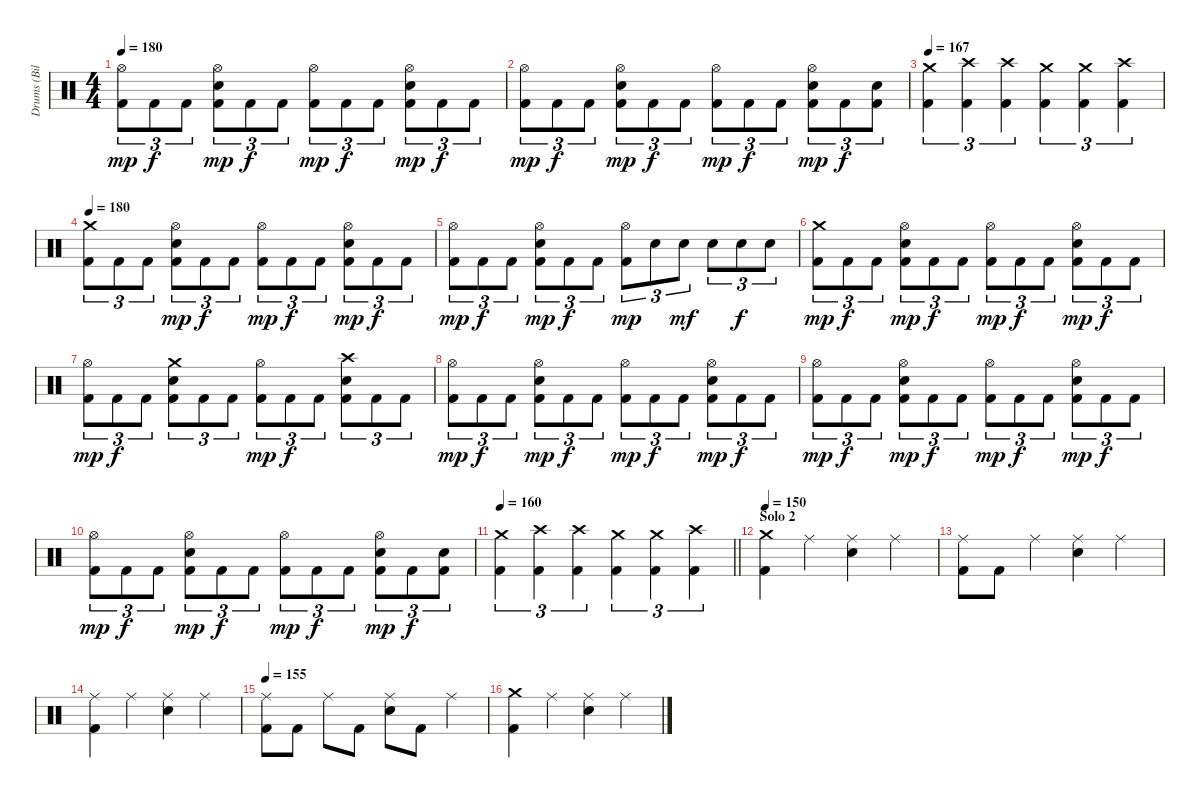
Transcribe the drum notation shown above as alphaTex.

\track ("Drums (Bill Andrews)" "Drums (Bil") {instrument percussion}
\staff
\articulation defaults
\ts (4 4)
\tempo 180
\clef neutral
\ks c
("Hi-Hat (open)" "Kick (hit) 2").8{tu (3 2) dy mp} "Kick (hit) 2".8{tu (3 2) dy f} "Kick (hit) 2".8{tu (3 2)} ("Hi-Hat (open)" "Kick (hit) 2" "Electric Snare (hit)").8{tu (3 2) dy mp} "Kick (hit) 2".8{tu (3 2) dy f} "Kick (hit) 2".8{tu (3 2)} ("Hi-Hat (open)" "Kick (hit) 2").8{tu (3 2) dy mp} "Kick (hit) 2".8{tu (3 2) dy f} "Kick (hit) 2".8{tu (3 2)} ("Hi-Hat (open)" "Kick (hit) 2" "Electric Snare (hit)").8{tu (3 2) dy mp} "Kick (hit) 2".8{tu (3 2) dy f} "Kick (hit) 2".8{tu (3 2)} |
("Hi-Hat (open)" "Kick (hit) 2").8{tu (3 2) dy mp} "Kick (hit) 2".8{tu (3 2) dy f} "Kick (hit) 2".8{tu (3 2)} ("Hi-Hat (open)" "Kick (hit) 2" "Electric Snare (hit)").8{tu (3 2) dy mp} "Kick (hit) 2".8{tu (3 2) dy f} "Kick (hit) 2".8{tu (3 2)} ("Hi-Hat (open)" "Kick (hit) 2").8{tu (3 2) dy mp} "Kick (hit) 2".8{tu (3 2) dy f} "Kick (hit) 2".8{tu (3 2)} ("Hi-Hat (open)" "Kick (hit) 2" "Electric Snare (hit)").8{tu (3 2) dy mp} "Kick (hit) 2".8{tu (3 2) dy f} ("Kick (hit) 2" "Electric Snare (hit)").8{tu (3 2)} |
\tempo 167
("Crash medium (hit)" "Kick (hit) 2").4{tu (3 2)} ("Crash high (hit)" "Kick (hit) 2").4{tu (3 2)} ("Crash high (hit)" "Kick (hit) 2").4{tu (3 2)} ("Crash medium (hit)" "Kick (hit) 2").4{tu (3 2)} ("Crash medium (hit)" "Kick (hit) 2").4{tu (3 2)} ("Crash high (hit)" "Kick (hit) 2").4{tu (3 2)} |
\tempo 180
("Crash medium (hit)" "Kick (hit) 2").8{tu (3 2)} "Kick (hit) 2".8{tu (3 2)} "Kick (hit) 2".8{tu (3 2)} ("Hi-Hat (open)" "Kick (hit) 2" "Electric Snare (hit)").8{tu (3 2) dy mp} "Kick (hit) 2".8{tu (3 2) dy f} "Kick (hit) 2".8{tu (3 2)} ("Hi-Hat (open)" "Kick (hit) 2").8{tu (3 2) dy mp} "Kick (hit) 2".8{tu (3 2) dy f} "Kick (hit) 2".8{tu (3 2)} ("Hi-Hat (open)" "Kick (hit) 2" "Electric Snare (hit)").8{tu (3 2) dy mp} "Kick (hit) 2".8{tu (3 2) dy f} "Kick (hit) 2".8{tu (3 2)} |
("Hi-Hat (open)" "Kick (hit) 2").8{tu (3 2) dy mp} "Kick (hit) 2".8{tu (3 2) dy f} "Kick (hit) 2".8{tu (3 2)} ("Hi-Hat (open)" "Kick (hit) 2" "Electric Snare (hit)").8{tu (3 2) dy mp} "Kick (hit) 2".8{tu (3 2) dy f} "Kick (hit) 2".8{tu (3 2)} ("Hi-Hat (open)" "Kick (hit) 2").8{tu (3 2) dy mp} "Electric Snare (hit)".8{tu (3 2)} "Electric Snare (hit)".8{tu (3 2) dy mf} "Electric Snare (hit)".8{tu (3 2)} "Electric Snare (hit)".8{tu (3 2) dy f} "Electric Snare (hit)".8{tu (3 2)} |
("Crash medium (hit)" "Kick (hit) 2").8{tu (3 2) dy mp} "Kick (hit) 2".8{tu (3 2) dy f} "Kick (hit) 2".8{tu (3 2)} ("Hi-Hat (open)" "Kick (hit) 2" "Electric Snare (hit)").8{tu (3 2) dy mp} "Kick (hit) 2".8{tu (3 2) dy f} "Kick (hit) 2".8{tu (3 2)} ("Hi-Hat (open)" "Kick (hit) 2").8{tu (3 2) dy mp} "Kick (hit) 2".8{tu (3 2) dy f} "Kick (hit) 2".8{tu (3 2)} ("Hi-Hat (open)" "Kick (hit) 2" "Electric Snare (hit)").8{tu (3 2) dy mp} "Kick (hit) 2".8{tu (3 2) dy f} "Kick (hit) 2".8{tu (3 2)} |
("Hi-Hat (open)" "Kick (hit) 2").8{tu (3 2) dy mp} "Kick (hit) 2".8{tu (3 2) dy f} "Kick (hit) 2".8{tu (3 2)} ("Crash medium (hit)" "Kick (hit) 2" "Electric Snare (hit)").8{tu (3 2)} "Kick (hit) 2".8{tu (3 2)} "Kick (hit) 2".8{tu (3 2)} ("Hi-Hat (open)" "Kick (hit) 2").8{tu (3 2) dy mp} "Kick (hit) 2".8{tu (3 2) dy f} "Kick (hit) 2".8{tu (3 2)} ("Crash high (hit)" "Kick (hit) 2" "Electric Snare (hit)").8{tu (3 2)} "Kick (hit) 2".8{tu (3 2)} "Kick (hit) 2".8{tu (3 2)} |
("Hi-Hat (open)" "Kick (hit) 2").8{tu (3 2) dy mp} "Kick (hit) 2".8{tu (3 2) dy f} "Kick (hit) 2".8{tu (3 2)} ("Hi-Hat (open)" "Kick (hit) 2" "Electric Snare (hit)").8{tu (3 2) dy mp} "Kick (hit) 2".8{tu (3 2) dy f} "Kick (hit) 2".8{tu (3 2)} ("Hi-Hat (open)" "Kick (hit) 2").8{tu (3 2) dy mp} "Kick (hit) 2".8{tu (3 2) dy f} "Kick (hit) 2".8{tu (3 2)} ("Hi-Hat (open)" "Kick (hit) 2" "Electric Snare (hit)").8{tu (3 2) dy mp} "Kick (hit) 2".8{tu (3 2) dy f} "Kick (hit) 2".8{tu (3 2)} |
("Hi-Hat (open)" "Kick (hit) 2").8{tu (3 2) dy mp} "Kick (hit) 2".8{tu (3 2) dy f} "Kick (hit) 2".8{tu (3 2)} ("Hi-Hat (open)" "Kick (hit) 2" "Electric Snare (hit)").8{tu (3 2) dy mp} "Kick (hit) 2".8{tu (3 2) dy f} "Kick (hit) 2".8{tu (3 2)} ("Hi-Hat (open)" "Kick (hit) 2").8{tu (3 2) dy mp} "Kick (hit) 2".8{tu (3 2) dy f} "Kick (hit) 2".8{tu (3 2)} ("Hi-Hat (open)" "Kick (hit) 2" "Electric Snare (hit)").8{tu (3 2) dy mp} "Kick (hit) 2".8{tu (3 2) dy f} "Kick (hit) 2".8{tu (3 2)} |
("Hi-Hat (open)" "Kick (hit) 2").8{tu (3 2) dy mp} "Kick (hit) 2".8{tu (3 2) dy f} "Kick (hit) 2".8{tu (3 2)} ("Hi-Hat (open)" "Kick (hit) 2" "Electric Snare (hit)").8{tu (3 2) dy mp} "Kick (hit) 2".8{tu (3 2) dy f} "Kick (hit) 2".8{tu (3 2)} ("Hi-Hat (open)" "Kick (hit) 2").8{tu (3 2) dy mp} "Kick (hit) 2".8{tu (3 2) dy f} "Kick (hit) 2".8{tu (3 2)} ("Hi-Hat (open)" "Kick (hit) 2" "Electric Snare (hit)").8{tu (3 2) dy mp} "Kick (hit) 2".8{tu (3 2) dy f} ("Kick (hit) 2" "Electric Snare (hit)").8{tu (3 2)} |
\tempo 160
\barLineRight lightlight
("Crash medium (hit)" "Kick (hit) 2").4{tu (3 2)} ("Crash high (hit)" "Kick (hit) 2").4{tu (3 2)} ("Crash high (hit)" "Kick (hit) 2").4{tu (3 2)} ("Crash medium (hit)" "Kick (hit) 2").4{tu (3 2)} ("Crash medium (hit)" "Kick (hit) 2").4{tu (3 2)} ("Crash high (hit)" "Kick (hit) 2").4{tu (3 2)} |
\section ("" "Solo 2")
\tempo 150
("Crash medium (hit)" "Kick (hit) 2").4 "Ride (middle)".4 ("Ride (middle)" "Electric Snare (hit)").4 "Ride (middle)".4 |
("Ride (middle)" "Kick (hit) 2").8 "Kick (hit) 2".8 "Ride (middle)".4 ("Ride (middle)" "Electric Snare (hit)").4 "Ride (middle)".4 |
("Ride (middle)" "Kick (hit) 2").4 "Ride (middle)".4 ("Ride (middle)" "Electric Snare (hit)").4 "Ride (middle)".4 |
\tempo 155
("Ride (middle)" "Kick (hit) 2").8 "Kick (hit) 2".8 "Ride (middle)".8 "Kick (hit) 2".8 ("Ride (middle)" "Electric Snare (hit)").8 "Kick (hit) 2".8 "Ride (middle)".4 |
("Crash medium (hit)" "Kick (hit) 2").4 "Ride (middle)".4 ("Ride (middle)" "Electric Snare (hit)").4 "Ride (middle)".4
